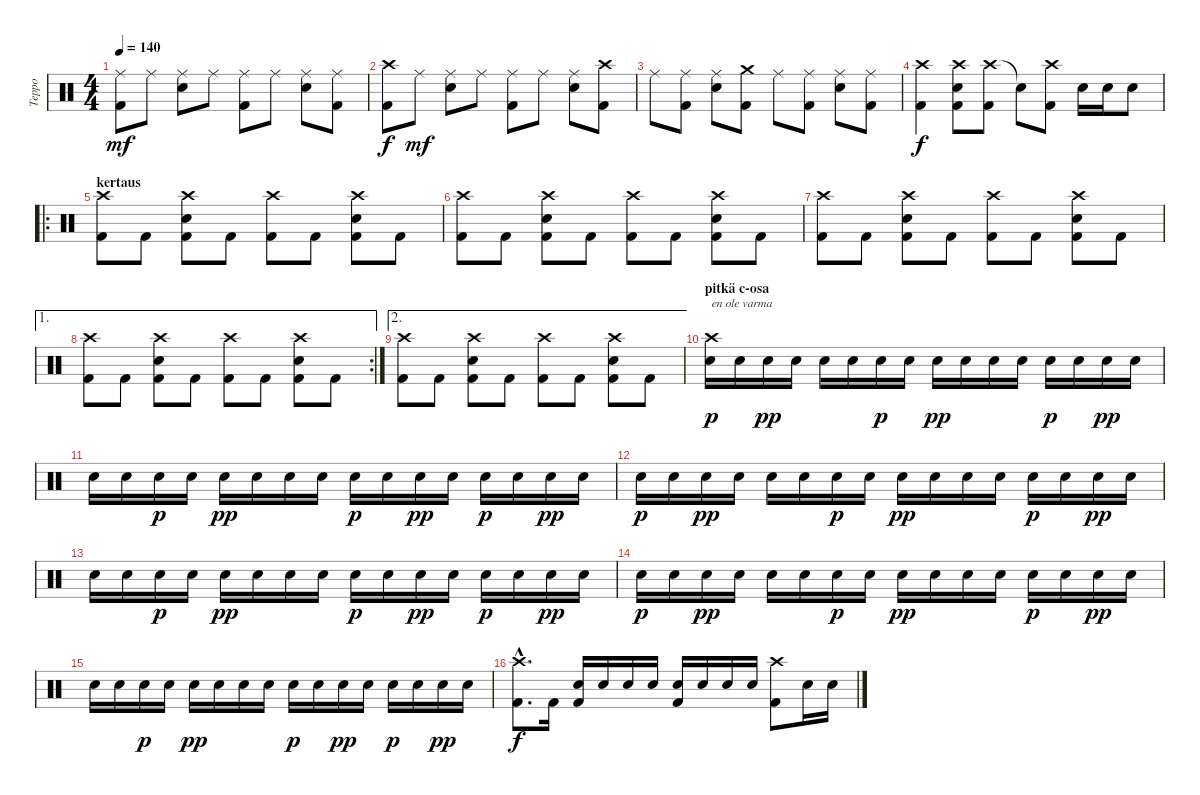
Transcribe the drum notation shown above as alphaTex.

\track ("Teppo" "Teppo") {instrument percussion}
\staff {score}
\articulation defaults
\ts (4 4)
\tempo 140
\clef neutral
\ks c
("Ride (middle)" "Kick (hit) 2").8{dy mf} "Ride (middle)".8 ("Ride (middle)" "Electric Snare (hit)").8 "Ride (middle)".8 ("Ride (middle)" "Kick (hit) 2").8 "Ride (middle)".8 ("Ride (middle)" "Electric Snare (hit)").8 ("Ride (middle)" "Kick (hit) 2").8 |
("Crash high (hit)" "Kick (hit) 2").8{dy f} "Ride (middle)".8{dy mf} ("Ride (middle)" "Electric Snare (hit)").8 "Ride (middle)".8 ("Ride (middle)" "Kick (hit) 2").8 "Ride (middle)".8 ("Ride (middle)" "Electric Snare (hit)").8 ("Crash high (hit)" "Kick (hit) 2").8 |
"Ride (middle)".8 ("Ride (middle)" "Kick (hit) 2").8 ("Ride (middle)" "Electric Snare (hit)").8 ("Crash medium (hit)" "Kick (hit) 2").8 "Ride (middle)".8 ("Ride (middle)" "Kick (hit) 2").8 ("Ride (middle)" "Electric Snare (hit)").8 ("Ride (middle)" "Kick (hit) 2").8 |
("Crash high (hit)" "Kick (hit) 2").4{dy f} ("Crash high (hit)" "Electric Snare (hit)" "Kick (hit) 2").8 ("Crash high (hit)" "Kick (hit) 2").8 "Snare (hit)"{t}.8 ("Crash high (hit)" "Kick (hit) 2").8 "Electric Snare (hit)".16 "Electric Snare (hit)".16 "Electric Snare (hit)".8 |
\ro
\section ("" "kertaus")
("Crash high (hit)" "Kick (hit) 2").8 "Kick (hit) 2".8 ("Crash high (hit)" "Electric Snare (hit)" "Kick (hit) 2").8 "Kick (hit) 2".8 ("Crash high (hit)" "Kick (hit) 2").8 "Kick (hit) 2".8 ("Crash high (hit)" "Electric Snare (hit)" "Kick (hit) 2").8 "Kick (hit) 2".8 |
("Crash high (hit)" "Kick (hit) 2").8 "Kick (hit) 2".8 ("Crash high (hit)" "Electric Snare (hit)" "Kick (hit) 2").8 "Kick (hit) 2".8 ("Crash high (hit)" "Kick (hit) 2").8 "Kick (hit) 2".8 ("Crash high (hit)" "Electric Snare (hit)" "Kick (hit) 2").8 "Kick (hit) 2".8 |
("Crash high (hit)" "Kick (hit) 2").8 "Kick (hit) 2".8 ("Crash high (hit)" "Electric Snare (hit)" "Kick (hit) 2").8 "Kick (hit) 2".8 ("Crash high (hit)" "Kick (hit) 2").8 "Kick (hit) 2".8 ("Crash high (hit)" "Electric Snare (hit)" "Kick (hit) 2").8 "Kick (hit) 2".8 |
\ae 1
\rc 2
("Crash high (hit)" "Kick (hit) 2").8 "Kick (hit) 2".8 ("Crash high (hit)" "Electric Snare (hit)" "Kick (hit) 2").8 "Kick (hit) 2".8 ("Crash high (hit)" "Kick (hit) 2").8 "Kick (hit) 2".8 ("Crash high (hit)" "Electric Snare (hit)" "Kick (hit) 2").8 "Kick (hit) 2".8 |
\ae 2
("Crash high (hit)" "Kick (hit) 2").8 "Kick (hit) 2".8 ("Crash high (hit)" "Electric Snare (hit)" "Kick (hit) 2").8 "Kick (hit) 2".8 ("Crash high (hit)" "Kick (hit) 2").8 "Kick (hit) 2".8 ("Crash high (hit)" "Electric Snare (hit)" "Kick (hit) 2").8 "Kick (hit) 2".8 |
\section ("" "pitkä c-osa")
("Crash high (hit)" "Electric Snare (hit)").16{txt "en ole varma" dy p} "Electric Snare (hit)".16 "Electric Snare (hit)".16{dy pp} "Electric Snare (hit)".16 "Electric Snare (hit)".16 "Electric Snare (hit)".16 "Electric Snare (hit)".16{dy p} "Electric Snare (hit)".16 "Electric Snare (hit)".16{dy pp} "Electric Snare (hit)".16 "Electric Snare (hit)".16 "Electric Snare (hit)".16 "Electric Snare (hit)".16{dy p} "Electric Snare (hit)".16 "Electric Snare (hit)".16{dy pp} "Electric Snare (hit)".16 |
"Electric Snare (hit)".16 "Electric Snare (hit)".16 "Electric Snare (hit)".16{dy p} "Electric Snare (hit)".16 "Electric Snare (hit)".16{dy pp} "Electric Snare (hit)".16 "Electric Snare (hit)".16 "Electric Snare (hit)".16 "Electric Snare (hit)".16{dy p} "Electric Snare (hit)".16 "Electric Snare (hit)".16{dy pp} "Electric Snare (hit)".16 "Electric Snare (hit)".16{dy p} "Electric Snare (hit)".16 "Electric Snare (hit)".16{dy pp} "Electric Snare (hit)".16 |
"Electric Snare (hit)".16{dy p} "Electric Snare (hit)".16 "Electric Snare (hit)".16{dy pp} "Electric Snare (hit)".16 "Electric Snare (hit)".16 "Electric Snare (hit)".16 "Electric Snare (hit)".16{dy p} "Electric Snare (hit)".16 "Electric Snare (hit)".16{dy pp} "Electric Snare (hit)".16 "Electric Snare (hit)".16 "Electric Snare (hit)".16 "Electric Snare (hit)".16{dy p} "Electric Snare (hit)".16 "Electric Snare (hit)".16{dy pp} "Electric Snare (hit)".16 |
"Electric Snare (hit)".16 "Electric Snare (hit)".16 "Electric Snare (hit)".16{dy p} "Electric Snare (hit)".16 "Electric Snare (hit)".16{dy pp} "Electric Snare (hit)".16 "Electric Snare (hit)".16 "Electric Snare (hit)".16 "Electric Snare (hit)".16{dy p} "Electric Snare (hit)".16 "Electric Snare (hit)".16{dy pp} "Electric Snare (hit)".16 "Electric Snare (hit)".16{dy p} "Electric Snare (hit)".16 "Electric Snare (hit)".16{dy pp} "Electric Snare (hit)".16 |
"Electric Snare (hit)".16{dy p} "Electric Snare (hit)".16 "Electric Snare (hit)".16{dy pp} "Electric Snare (hit)".16 "Electric Snare (hit)".16 "Electric Snare (hit)".16 "Electric Snare (hit)".16{dy p} "Electric Snare (hit)".16 "Electric Snare (hit)".16{dy pp} "Electric Snare (hit)".16 "Electric Snare (hit)".16 "Electric Snare (hit)".16 "Electric Snare (hit)".16{dy p} "Electric Snare (hit)".16 "Electric Snare (hit)".16{dy pp} "Electric Snare (hit)".16 |
"Electric Snare (hit)".16 "Electric Snare (hit)".16 "Electric Snare (hit)".16{dy p} "Electric Snare (hit)".16 "Electric Snare (hit)".16{dy pp} "Electric Snare (hit)".16 "Electric Snare (hit)".16 "Electric Snare (hit)".16 "Electric Snare (hit)".16{dy p} "Electric Snare (hit)".16 "Electric Snare (hit)".16{dy pp} "Electric Snare (hit)".16 "Electric Snare (hit)".16{dy p} "Electric Snare (hit)".16 "Electric Snare (hit)".16{dy pp} "Electric Snare (hit)".16 |
("Crash high (hit)"{hac} "Kick (hit) 2"{hac}).8{d dy f} "Kick (hit) 2".16 ("Electric Snare (hit)" "Kick (hit) 2").16 "Electric Snare (hit)".16 "Electric Snare (hit)".16 "Electric Snare (hit)".16 ("Electric Snare (hit)" "Kick (hit) 2").16 "Electric Snare (hit)".16 "Electric Snare (hit)".16 "Electric Snare (hit)".16 ("Crash high (hit)" "Kick (hit) 2").8 "Electric Snare (hit)".16 "Electric Snare (hit)".16
